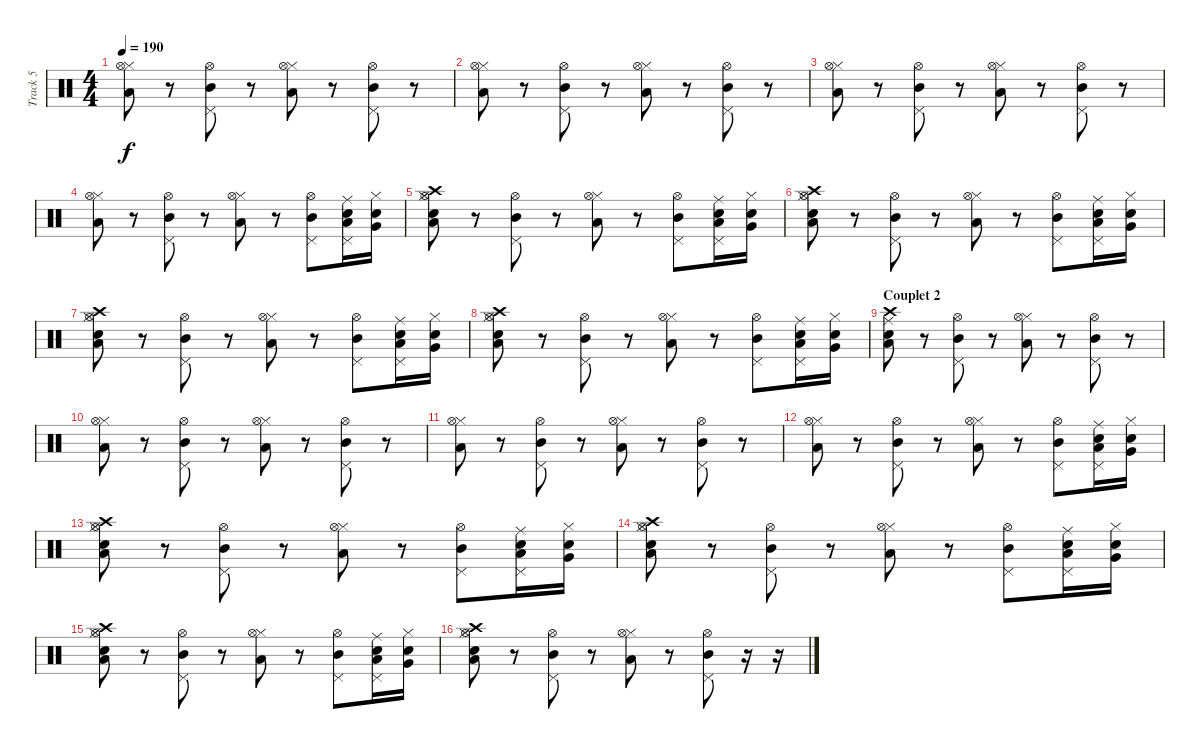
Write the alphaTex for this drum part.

\track ("Track 5" "Track 5") {instrument percussion}
\staff {score}
\articulation defaults
\ts (4 4)
\tempo 190
\clef neutral
\ks c
("Low Tom (hit)" "Hi-Hat (closed)" "Hi-Hat (open)").8{dy f} r.8 ("Mid Tom (hit)" "Pedal Hi-Hat (hit)" "Hi-Hat (open)").8 r.8 ("Low Tom (hit)" "Hi-Hat (closed)" "Hi-Hat (open)").8 r.8 ("Mid Tom (hit)" "Pedal Hi-Hat (hit)" "Hi-Hat (open)").8 r.8 |
("Low Tom (hit)" "Hi-Hat (closed)" "Hi-Hat (open)").8 r.8 ("Mid Tom (hit)" "Pedal Hi-Hat (hit)" "Hi-Hat (open)").8 r.8 ("Low Tom (hit)" "Hi-Hat (closed)" "Hi-Hat (open)").8 r.8 ("Mid Tom (hit)" "Pedal Hi-Hat (hit)" "Hi-Hat (open)").8 r.8 |
("Low Tom (hit)" "Hi-Hat (closed)" "Hi-Hat (open)").8 r.8 ("Mid Tom (hit)" "Pedal Hi-Hat (hit)" "Hi-Hat (open)").8 r.8 ("Low Tom (hit)" "Hi-Hat (closed)" "Hi-Hat (open)").8 r.8 ("Mid Tom (hit)" "Pedal Hi-Hat (hit)" "Hi-Hat (open)").8 r.8 |
("Low Tom (hit)" "Hi-Hat (closed)" "Hi-Hat (open)").8 r.8 ("Mid Tom (hit)" "Pedal Hi-Hat (hit)" "Hi-Hat (open)").8 r.8 ("Low Tom (hit)" "Hi-Hat (closed)" "Hi-Hat (open)").8 r.8 ("Mid Tom (hit)" "Pedal Hi-Hat (hit)" "Hi-Hat (open)").8 ("Low Tom (hit)" "Pedal Hi-Hat (hit)" "Ride (middle)" "Electric Snare (hit)").16 ("Very Low Tom (hit)" "Hi-Hat (closed)" "Snare (hit) 2").16 |
("Low Tom (hit)" "Hi-Hat (closed)" "Hi-Hat (open)" "Crash high (hit)" "Electric Snare (hit)").8 r.8 ("Mid Tom (hit)" "Pedal Hi-Hat (hit)" "Hi-Hat (open)").8 r.8 ("Low Tom (hit)" "Hi-Hat (closed)" "Hi-Hat (open)").8 r.8 ("Mid Tom (hit)" "Pedal Hi-Hat (hit)" "Hi-Hat (open)").8 ("Low Tom (hit)" "Pedal Hi-Hat (hit)" "Ride (middle)" "Electric Snare (hit)").16 ("Very Low Tom (hit)" "Hi-Hat (closed)" "Snare (hit) 2").16 |
("Low Tom (hit)" "Hi-Hat (closed)" "Hi-Hat (open)" "Crash high (hit)" "Electric Snare (hit)").8 r.8 ("Mid Tom (hit)" "Pedal Hi-Hat (hit)" "Hi-Hat (open)").8 r.8 ("Low Tom (hit)" "Hi-Hat (closed)" "Hi-Hat (open)").8 r.8 ("Mid Tom (hit)" "Pedal Hi-Hat (hit)" "Hi-Hat (open)").8 ("Low Tom (hit)" "Pedal Hi-Hat (hit)" "Ride (middle)" "Electric Snare (hit)").16 ("Very Low Tom (hit)" "Hi-Hat (closed)" "Snare (hit) 2").16 |
("Low Tom (hit)" "Hi-Hat (closed)" "Hi-Hat (open)" "Crash high (hit)" "Electric Snare (hit)").8 r.8 ("Mid Tom (hit)" "Pedal Hi-Hat (hit)" "Hi-Hat (open)").8 r.8 ("Low Tom (hit)" "Hi-Hat (closed)" "Hi-Hat (open)").8 r.8 ("Mid Tom (hit)" "Pedal Hi-Hat (hit)" "Hi-Hat (open)").8 ("Low Tom (hit)" "Pedal Hi-Hat (hit)" "Ride (middle)" "Electric Snare (hit)").16 ("Very Low Tom (hit)" "Hi-Hat (closed)" "Snare (hit) 2").16 |
("Low Tom (hit)" "Hi-Hat (closed)" "Hi-Hat (open)" "Crash high (hit)" "Electric Snare (hit)").8 r.8 ("Mid Tom (hit)" "Pedal Hi-Hat (hit)" "Hi-Hat (open)").8 r.8 ("Low Tom (hit)" "Hi-Hat (closed)" "Hi-Hat (open)").8 r.8 ("Mid Tom (hit)" "Pedal Hi-Hat (hit)" "Hi-Hat (open)").8 ("Low Tom (hit)" "Pedal Hi-Hat (hit)" "Ride (middle)" "Electric Snare (hit)").16 ("Very Low Tom (hit)" "Hi-Hat (closed)" "Snare (hit) 2").16 |
\section ("" "Couplet 2")
("Low Tom (hit)" "Snare (hit) 2" "Crash high (hit)" "Ride (middle)").8 r.8 ("Mid Tom (hit)" "Pedal Hi-Hat (hit)" "Hi-Hat (open)").8 r.8 ("Low Tom (hit)" "Hi-Hat (closed)" "Hi-Hat (open)").8 r.8 ("Mid Tom (hit)" "Pedal Hi-Hat (hit)" "Hi-Hat (open)").8 r.8 |
("Low Tom (hit)" "Hi-Hat (closed)" "Hi-Hat (open)").8 r.8 ("Mid Tom (hit)" "Pedal Hi-Hat (hit)" "Hi-Hat (open)").8 r.8 ("Low Tom (hit)" "Hi-Hat (closed)" "Hi-Hat (open)").8 r.8 ("Mid Tom (hit)" "Pedal Hi-Hat (hit)" "Hi-Hat (open)").8 r.8 |
("Low Tom (hit)" "Hi-Hat (closed)" "Hi-Hat (open)").8 r.8 ("Mid Tom (hit)" "Pedal Hi-Hat (hit)" "Hi-Hat (open)").8 r.8 ("Low Tom (hit)" "Hi-Hat (closed)" "Hi-Hat (open)").8 r.8 ("Mid Tom (hit)" "Pedal Hi-Hat (hit)" "Hi-Hat (open)").8 r.8 |
("Low Tom (hit)" "Hi-Hat (closed)" "Hi-Hat (open)").8 r.8 ("Mid Tom (hit)" "Pedal Hi-Hat (hit)" "Hi-Hat (open)").8 r.8 ("Low Tom (hit)" "Hi-Hat (closed)" "Hi-Hat (open)").8 r.8 ("Mid Tom (hit)" "Pedal Hi-Hat (hit)" "Hi-Hat (open)").8 ("Low Tom (hit)" "Pedal Hi-Hat (hit)" "Ride (middle)" "Electric Snare (hit)").16 ("Very Low Tom (hit)" "Hi-Hat (closed)" "Snare (hit) 2").16 |
("Low Tom (hit)" "Hi-Hat (closed)" "Hi-Hat (open)" "Crash high (hit)" "Electric Snare (hit)").8 r.8 ("Mid Tom (hit)" "Pedal Hi-Hat (hit)" "Hi-Hat (open)").8 r.8 ("Low Tom (hit)" "Hi-Hat (closed)" "Hi-Hat (open)").8 r.8 ("Mid Tom (hit)" "Pedal Hi-Hat (hit)" "Hi-Hat (open)").8 ("Low Tom (hit)" "Pedal Hi-Hat (hit)" "Ride (middle)" "Electric Snare (hit)").16 ("Very Low Tom (hit)" "Hi-Hat (closed)" "Snare (hit) 2").16 |
("Low Tom (hit)" "Hi-Hat (closed)" "Hi-Hat (open)" "Crash high (hit)" "Electric Snare (hit)").8 r.8 ("Mid Tom (hit)" "Pedal Hi-Hat (hit)" "Hi-Hat (open)").8 r.8 ("Low Tom (hit)" "Hi-Hat (closed)" "Hi-Hat (open)").8 r.8 ("Mid Tom (hit)" "Pedal Hi-Hat (hit)" "Hi-Hat (open)").8 ("Low Tom (hit)" "Pedal Hi-Hat (hit)" "Ride (middle)" "Electric Snare (hit)").16 ("Very Low Tom (hit)" "Hi-Hat (closed)" "Snare (hit) 2").16 |
("Low Tom (hit)" "Hi-Hat (closed)" "Hi-Hat (open)" "Crash high (hit)" "Electric Snare (hit)").8 r.8 ("Mid Tom (hit)" "Pedal Hi-Hat (hit)" "Hi-Hat (open)").8 r.8 ("Low Tom (hit)" "Hi-Hat (closed)" "Hi-Hat (open)").8 r.8 ("Mid Tom (hit)" "Pedal Hi-Hat (hit)" "Hi-Hat (open)").8 ("Low Tom (hit)" "Pedal Hi-Hat (hit)" "Ride (middle)" "Electric Snare (hit)").16 ("Very Low Tom (hit)" "Hi-Hat (closed)" "Snare (hit) 2").16 |
("Low Tom (hit)" "Hi-Hat (closed)" "Hi-Hat (open)" "Crash high (hit)" "Electric Snare (hit)").8 r.8 ("Mid Tom (hit)" "Pedal Hi-Hat (hit)" "Hi-Hat (open)").8 r.8 ("Low Tom (hit)" "Hi-Hat (closed)" "Hi-Hat (open)").8 r.8 ("Mid Tom (hit)" "Pedal Hi-Hat (hit)" "Hi-Hat (open)").8 r.16 r.16
